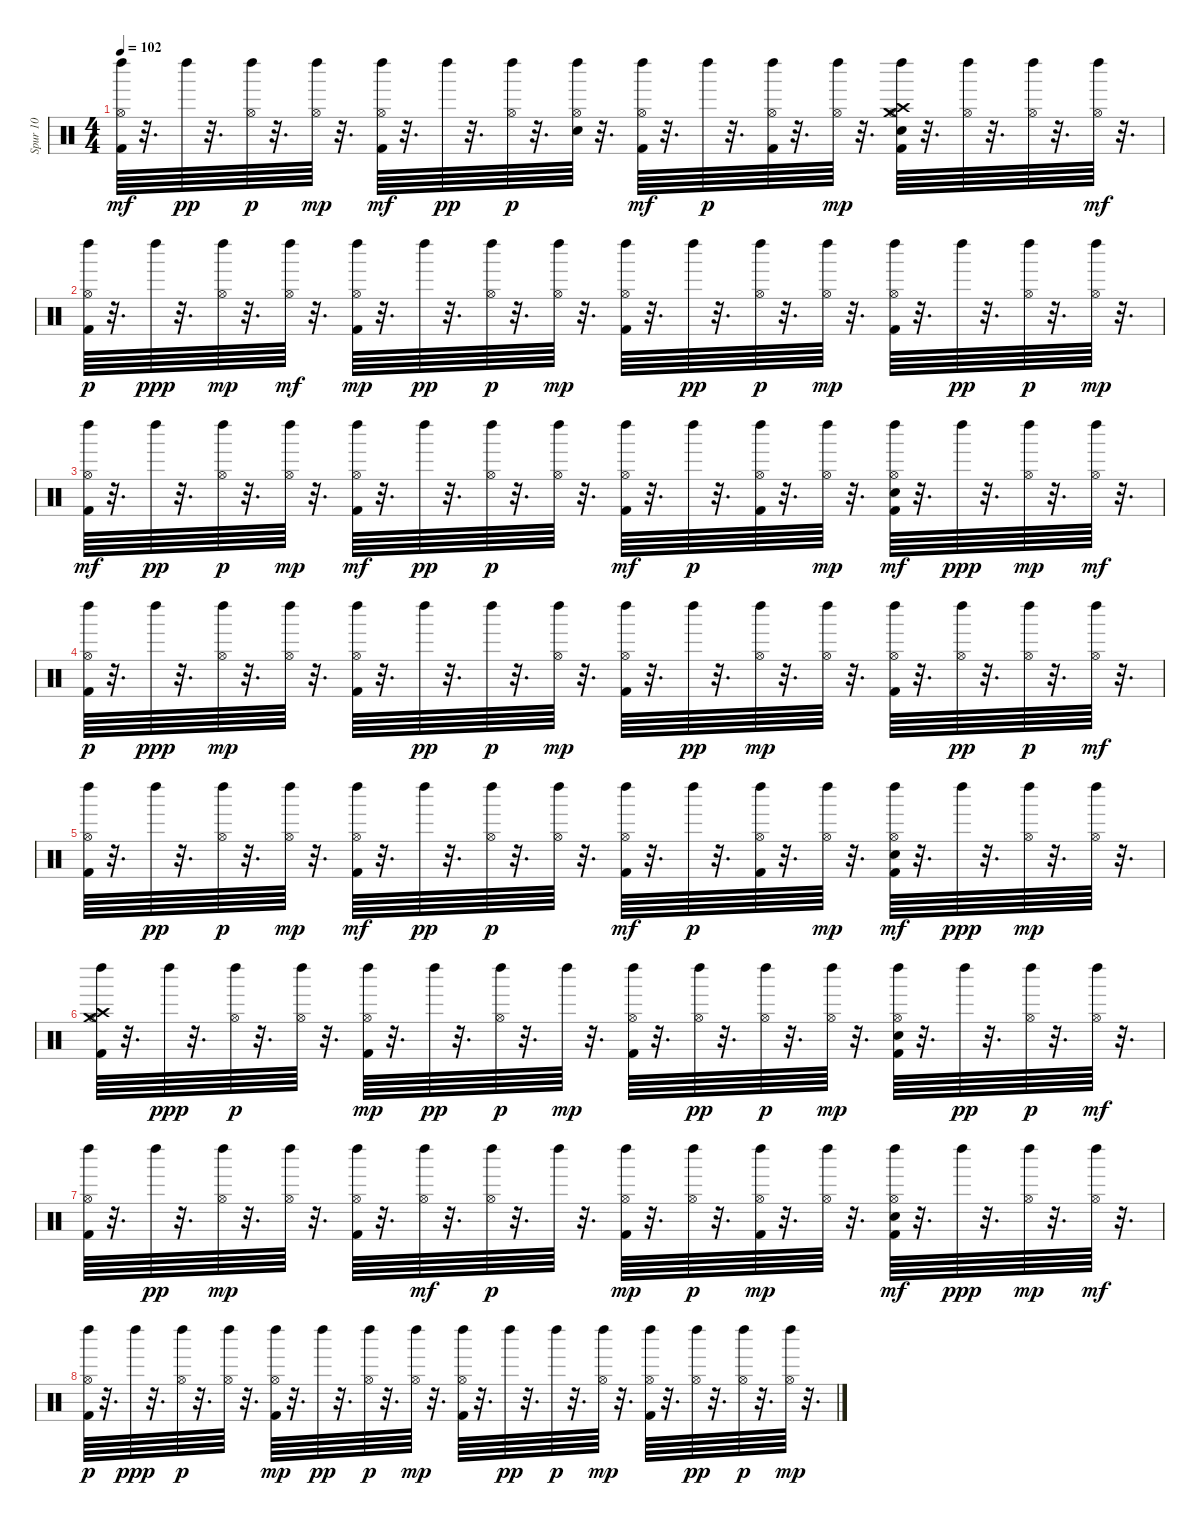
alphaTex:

\track ("Spur 10" "Spur 10") {instrument percussion}
\staff {score}
\articulation defaults
\ts (4 4)
\tempo 102
\clef neutral
\ks c
("Kick (hit) 2" "Hi-Hat (open)" "Left Maraca (hit)").64{dy mf} r.32{d} "Left Maraca (hit)".64{dy pp} r.32{d} ("Hi-Hat (open)" "Left Maraca (hit)").64{dy p} r.32{d} ("Hi-Hat (open)" "Left Maraca (hit)").64{dy mp} r.32{d} ("Hi-Hat (open)" "Left Maraca (hit)" "Kick (hit) 2").64{dy mf} r.32{d} "Left Maraca (hit)".64{dy pp} r.32{d} ("Hi-Hat (open)" "Left Maraca (hit)").64{dy p} r.32{d} ("Hi-Hat (open)" "Left Maraca (hit)" "Snare (hit) 2").64 r.32{d} ("Hi-Hat (open)" "Left Maraca (hit)" "Kick (hit) 2").64{dy mf} r.32{d} "Left Maraca (hit)".64{dy p} r.32{d} ("Hi-Hat (open)" "Left Maraca (hit)" "Kick (hit) 2").64 r.32{d} ("Hi-Hat (open)" "Left Maraca (hit)").64{dy mp} r.32{d} ("Left Maraca (hit)" "Snare (hit) 2" "Kick (hit) 2" "Hi-Hat (open)" "Crash medium (hit)" "Crash high (hit)").64 r.32{d} ("Left Maraca (hit)" "Hi-Hat (open)").64 r.32{d} ("Hi-Hat (open)" "Left Maraca (hit)").64 r.32{d} ("Left Maraca (hit)" "Hi-Hat (open)").64{dy mf} r.32{d} |
("Left Maraca (hit)" "Kick (hit) 2" "Hi-Hat (open)").64{dy p} r.32{d} "Left Maraca (hit)".64{dy ppp} r.32{d} ("Left Maraca (hit)" "Hi-Hat (open)").64{dy mp} r.32{d} ("Left Maraca (hit)" "Hi-Hat (open)").64{dy mf} r.32{d} ("Kick (hit) 2" "Left Maraca (hit)" "Hi-Hat (open)").64{dy mp} r.32{d} "Left Maraca (hit)".64{dy pp} r.32{d} ("Hi-Hat (open)" "Left Maraca (hit)").64{dy p} r.32{d} ("Hi-Hat (open)" "Left Maraca (hit)").64{dy mp} r.32{d} ("Kick (hit) 2" "Hi-Hat (open)" "Left Maraca (hit)").64 r.32{d} "Left Maraca (hit)".64{dy pp} r.32{d} ("Hi-Hat (open)" "Left Maraca (hit)").64{dy p} r.32{d} ("Hi-Hat (open)" "Left Maraca (hit)").64{dy mp} r.32{d} ("Hi-Hat (open)" "Left Maraca (hit)" "Kick (hit) 2").64 r.32{d} "Left Maraca (hit)".64{dy pp} r.32{d} ("Hi-Hat (open)" "Left Maraca (hit)").64{dy p} r.32{d} ("Hi-Hat (open)" "Left Maraca (hit)").64{dy mp} r.32{d} |
("Kick (hit) 2" "Hi-Hat (open)" "Left Maraca (hit)").64{dy mf} r.32{d} "Left Maraca (hit)".64{dy pp} r.32{d} ("Hi-Hat (open)" "Left Maraca (hit)").64{dy p} r.32{d} ("Hi-Hat (open)" "Left Maraca (hit)").64{dy mp} r.32{d} ("Kick (hit) 2" "Hi-Hat (open)" "Left Maraca (hit)").64{dy mf} r.32{d} "Left Maraca (hit)".64{dy pp} r.32{d} ("Hi-Hat (open)" "Left Maraca (hit)").64{dy p} r.32{d} ("Hi-Hat (open)" "Left Maraca (hit)").64 r.32{d} ("Hi-Hat (open)" "Left Maraca (hit)" "Kick (hit) 2").64{dy mf} r.32{d} "Left Maraca (hit)".64{dy p} r.32{d} ("Kick (hit) 2" "Hi-Hat (open)" "Left Maraca (hit)").64 r.32{d} ("Hi-Hat (open)" "Left Maraca (hit)").64{dy mp} r.32{d} ("Hi-Hat (open)" "Left Maraca (hit)" "Kick (hit) 2" "Snare (hit) 2").64{dy mf} r.32{d} "Left Maraca (hit)".64{dy ppp} r.32{d} ("Hi-Hat (open)" "Left Maraca (hit)").64{dy mp} r.32{d} ("Hi-Hat (open)" "Left Maraca (hit)").64{dy mf} r.32{d} |
("Hi-Hat (open)" "Kick (hit) 2" "Left Maraca (hit)").64{dy p} r.32{d} "Left Maraca (hit)".64{dy ppp} r.32{d} ("Left Maraca (hit)" "Hi-Hat (open)").64{dy mp} r.32{d} ("Left Maraca (hit)" "Hi-Hat (open)").64 r.32{d} ("Hi-Hat (open)" "Left Maraca (hit)" "Kick (hit) 2").64 r.32{d} "Left Maraca (hit)".64{dy pp} r.32{d} "Left Maraca (hit)".64{dy p} r.32{d} ("Left Maraca (hit)" "Hi-Hat (open)").64{dy mp} r.32{d} ("Hi-Hat (open)" "Left Maraca (hit)" "Kick (hit) 2").64 r.32{d} "Left Maraca (hit)".64{dy pp} r.32{d} ("Left Maraca (hit)" "Hi-Hat (open)").64{dy mp} r.32{d} ("Hi-Hat (open)" "Left Maraca (hit)").64 r.32{d} ("Hi-Hat (open)" "Left Maraca (hit)" "Kick (hit) 2").64 r.32{d} ("Hi-Hat (open)" "Left Maraca (hit)").64{dy pp} r.32{d} ("Hi-Hat (open)" "Left Maraca (hit)").64{dy p} r.32{d} ("Left Maraca (hit)" "Hi-Hat (open)").64{dy mf} r.32{d} |
("Left Maraca (hit)" "Kick (hit) 2" "Hi-Hat (open)").64 r.32{d} "Left Maraca (hit)".64{dy pp} r.32{d} ("Hi-Hat (open)" "Left Maraca (hit)").64{dy p} r.32{d} ("Left Maraca (hit)" "Hi-Hat (open)").64{dy mp} r.32{d} ("Kick (hit) 2" "Hi-Hat (open)" "Left Maraca (hit)").64{dy mf} r.32{d} "Left Maraca (hit)".64{dy pp} r.32{d} ("Hi-Hat (open)" "Left Maraca (hit)").64{dy p} r.32{d} ("Hi-Hat (open)" "Left Maraca (hit)").64 r.32{d} ("Kick (hit) 2" "Hi-Hat (open)" "Left Maraca (hit)").64{dy mf} r.32{d} "Left Maraca (hit)".64{dy p} r.32{d} ("Hi-Hat (open)" "Kick (hit) 2" "Left Maraca (hit)").64 r.32{d} ("Hi-Hat (open)" "Left Maraca (hit)").64{dy mp} r.32{d} ("Hi-Hat (open)" "Left Maraca (hit)" "Snare (hit) 2" "Kick (hit) 2").64{dy mf} r.32{d} "Left Maraca (hit)".64{dy ppp} r.32{d} ("Hi-Hat (open)" "Left Maraca (hit)").64{dy mp} r.32{d} ("Left Maraca (hit)" "Hi-Hat (open)").64 r.32{d} |
("Kick (hit) 2" "Left Maraca (hit)" "Hi-Hat (open)" "Crash medium (hit)" "Crash high (hit)").64 r.32{d} "Left Maraca (hit)".64{dy ppp} r.32{d} ("Hi-Hat (open)" "Left Maraca (hit)").64{dy p} r.32{d} ("Hi-Hat (open)" "Left Maraca (hit)").64 r.32{d} ("Kick (hit) 2" "Hi-Hat (open)" "Left Maraca (hit)").64{dy mp} r.32{d} "Left Maraca (hit)".64{dy pp} r.32{d} ("Hi-Hat (open)" "Left Maraca (hit)").64{dy p} r.32{d} "Left Maraca (hit)".64{dy mp} r.32{d} ("Hi-Hat (open)" "Kick (hit) 2" "Left Maraca (hit)").64 r.32{d} ("Hi-Hat (open)" "Left Maraca (hit)").64{dy pp} r.32{d} ("Hi-Hat (open)" "Left Maraca (hit)").64{dy p} r.32{d} ("Hi-Hat (open)" "Left Maraca (hit)").64{dy mp} r.32{d} ("Hi-Hat (open)" "Snare (hit) 2" "Left Maraca (hit)" "Kick (hit) 2").64 r.32{d} "Left Maraca (hit)".64{dy pp} r.32{d} ("Hi-Hat (open)" "Left Maraca (hit)").64{dy p} r.32{d} ("Left Maraca (hit)" "Hi-Hat (open)").64{dy mf} r.32{d} |
("Left Maraca (hit)" "Kick (hit) 2" "Hi-Hat (open)").64 r.32{d} "Left Maraca (hit)".64{dy pp} r.32{d} ("Left Maraca (hit)" "Hi-Hat (open)").64{dy mp} r.32{d} ("Left Maraca (hit)" "Hi-Hat (open)").64 r.32{d} ("Left Maraca (hit)" "Kick (hit) 2" "Hi-Hat (open)").64 r.32{d} ("Left Maraca (hit)" "Hi-Hat (open)").64{dy mf} r.32{d} ("Left Maraca (hit)" "Hi-Hat (open)").64{dy p} r.32{d} "Left Maraca (hit)".64 r.32{d} ("Left Maraca (hit)" "Kick (hit) 2" "Hi-Hat (open)").64{dy mp} r.32{d} ("Left Maraca (hit)" "Hi-Hat (open)").64{dy p} r.32{d} ("Left Maraca (hit)" "Kick (hit) 2" "Hi-Hat (open)").64{dy mp} r.32{d} ("Left Maraca (hit)" "Hi-Hat (open)").64 r.32{d} ("Left Maraca (hit)" "Kick (hit) 2" "Snare (hit) 2" "Hi-Hat (open)").64{dy mf} r.32{d} "Left Maraca (hit)".64{dy ppp} r.32{d} ("Hi-Hat (open)" "Left Maraca (hit)").64{dy mp} r.32{d} ("Hi-Hat (open)" "Left Maraca (hit)").64{dy mf} r.32{d} |
("Left Maraca (hit)" "Kick (hit) 2" "Hi-Hat (open)").64{dy p} r.32{d} "Left Maraca (hit)".64{dy ppp} r.32{d} ("Hi-Hat (open)" "Left Maraca (hit)").64{dy p} r.32{d} ("Hi-Hat (open)" "Left Maraca (hit)").64 r.32{d} ("Kick (hit) 2" "Hi-Hat (open)" "Left Maraca (hit)").64{dy mp} r.32{d} "Left Maraca (hit)".64{dy pp} r.32{d} ("Hi-Hat (open)" "Left Maraca (hit)").64{dy p} r.32{d} ("Hi-Hat (open)" "Left Maraca (hit)").64{dy mp} r.32{d} ("Kick (hit) 2" "Hi-Hat (open)" "Left Maraca (hit)").64 r.32{d} "Left Maraca (hit)".64{dy pp} r.32{d} "Left Maraca (hit)".64{dy p} r.32{d} ("Hi-Hat (open)" "Left Maraca (hit)").64{dy mp} r.32{d} ("Kick (hit) 2" "Hi-Hat (open)" "Left Maraca (hit)").64 r.32{d} ("Hi-Hat (open)" "Left Maraca (hit)").64{dy pp} r.32{d} ("Hi-Hat (open)" "Left Maraca (hit)").64{dy p} r.32{d} ("Hi-Hat (open)" "Left Maraca (hit)").64{dy mp} r.32{d}
